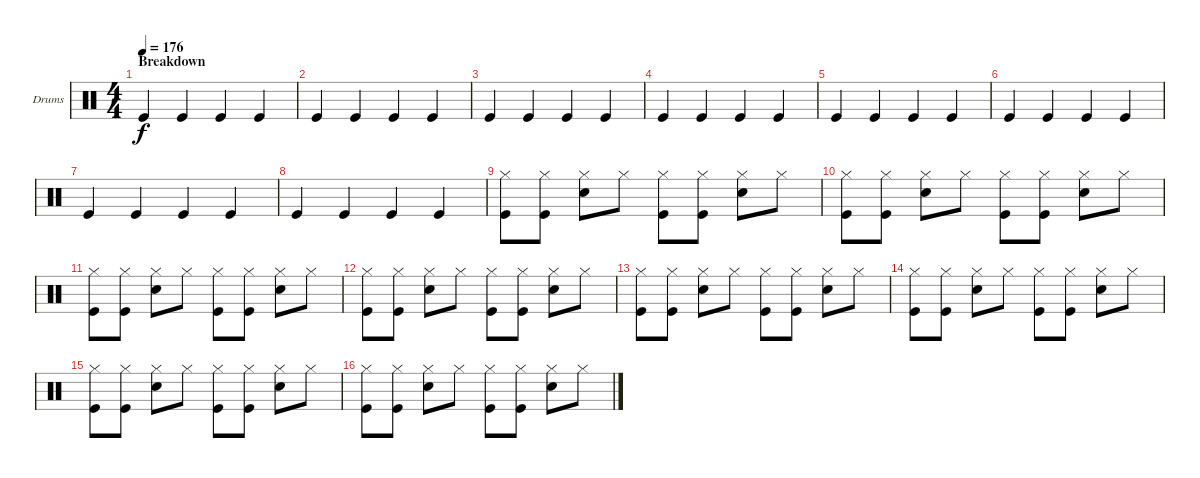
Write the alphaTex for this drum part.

\defaultSystemsLayout 4
\bracketExtendMode groupsimilarinstruments
\firstSystemTrackNameOrientation horizontal
\otherSystemsTrackNameOrientation horizontal
\track ("Drumkit" "Drums") {instrument percussion}
\staff {score}
\articulation defaults
\ts (4 4)
\section ("" "Breakdown")
\tempo 176
\clef neutral
\scale
1.02648
\ks c "Kick (hit)".4{dy f} "Kick (hit)".4 "Kick (hit)".4 "Kick (hit)".4
|
\scale
0.973518 "Kick (hit)".4 "Kick (hit)".4 "Kick (hit)".4 "Kick (hit)".4 |
\scale
1.02648 "Kick (hit)".4 "Kick (hit)".4 "Kick (hit)".4 "Kick (hit)".4 |
\scale
0.973518 "Kick (hit)".4 "Kick (hit)".4 "Kick (hit)".4 "Kick (hit)".4 |
\scale
1.02648 "Kick (hit)".4 "Kick (hit)".4 "Kick (hit)".4 "Kick (hit)".4 |
\scale
0.973518 "Kick (hit)".4 "Kick (hit)".4 "Kick (hit)".4 "Kick (hit)".4 |
\scale
1.02648 "Kick (hit)".4 "Kick (hit)".4 "Kick (hit)".4 "Kick (hit)".4 |
\scale
0.973518 "Kick (hit)".4 "Kick (hit)".4 "Kick (hit)".4 "Kick (hit)".4 |
\scale
1.02648 ("Hi-Hat (closed)" "Kick (hit)").8 ("Hi-Hat (closed)" "Kick (hit)").8 ("Hi-Hat (closed)" "Snare (hit) 2").8 "Hi-Hat (closed)".8 ("Hi-Hat (closed)" "Kick (hit)").8 ("Hi-Hat (closed)" "Kick (hit)").8 ("Hi-Hat (closed)" "Snare (hit) 2").8 "Hi-Hat (closed)".8 |
\scale
0.973518 ("Hi-Hat (closed)" "Kick (hit)").8 ("Hi-Hat (closed)" "Kick (hit)").8 ("Hi-Hat (closed)" "Snare (hit) 2").8 "Hi-Hat (closed)".8 ("Hi-Hat (closed)" "Kick (hit)").8 ("Hi-Hat (closed)" "Kick (hit)").8 ("Hi-Hat (closed)" "Snare (hit) 2").8 "Hi-Hat (closed)".8 |
\scale
1.02648 ("Hi-Hat (closed)" "Kick (hit)").8 ("Hi-Hat (closed)" "Kick (hit)").8 ("Hi-Hat (closed)" "Snare (hit) 2").8 "Hi-Hat (closed)".8 ("Hi-Hat (closed)" "Kick (hit)").8 ("Hi-Hat (closed)" "Kick (hit)").8 ("Hi-Hat (closed)" "Snare (hit) 2").8 "Hi-Hat (closed)".8 |
\scale
0.973518 ("Hi-Hat (closed)" "Kick (hit)").8 ("Hi-Hat (closed)" "Kick (hit)").8 ("Hi-Hat (closed)" "Snare (hit) 2").8 "Hi-Hat (closed)".8 ("Hi-Hat (closed)" "Kick (hit)").8 ("Hi-Hat (closed)" "Kick (hit)").8 ("Hi-Hat (closed)" "Snare (hit) 2").8 "Hi-Hat (closed)".8 |
\scale
1.02648 ("Hi-Hat (closed)" "Kick (hit)").8 ("Hi-Hat (closed)" "Kick (hit)").8 ("Hi-Hat (closed)" "Snare (hit) 2").8 "Hi-Hat (closed)".8 ("Hi-Hat (closed)" "Kick (hit)").8 ("Hi-Hat (closed)" "Kick (hit)").8 ("Hi-Hat (closed)" "Snare (hit) 2").8 "Hi-Hat (closed)".8 |
\scale
0.973518 ("Hi-Hat (closed)" "Kick (hit)").8 ("Hi-Hat (closed)" "Kick (hit)").8 ("Hi-Hat (closed)" "Snare (hit) 2").8 "Hi-Hat (closed)".8 ("Hi-Hat (closed)" "Kick (hit)").8 ("Hi-Hat (closed)" "Kick (hit)").8 ("Hi-Hat (closed)" "Snare (hit) 2").8 "Hi-Hat (closed)".8 |
\scale
1.02648 ("Hi-Hat (closed)" "Kick (hit)").8 ("Hi-Hat (closed)" "Kick (hit)").8 ("Hi-Hat (closed)" "Snare (hit) 2").8 "Hi-Hat (closed)".8 ("Hi-Hat (closed)" "Kick (hit)").8 ("Hi-Hat (closed)" "Kick (hit)").8 ("Hi-Hat (closed)" "Snare (hit) 2").8 "Hi-Hat (closed)".8 |
\scale
0.973518 ("Hi-Hat (closed)" "Kick (hit)").8 ("Hi-Hat (closed)" "Kick (hit)").8 ("Hi-Hat (closed)" "Snare (hit) 2").8 "Hi-Hat (closed)".8 ("Hi-Hat (closed)" "Kick (hit)").8 ("Hi-Hat (closed)" "Kick (hit)").8 ("Hi-Hat (closed)" "Snare (hit) 2").8 "Hi-Hat (closed)".8
